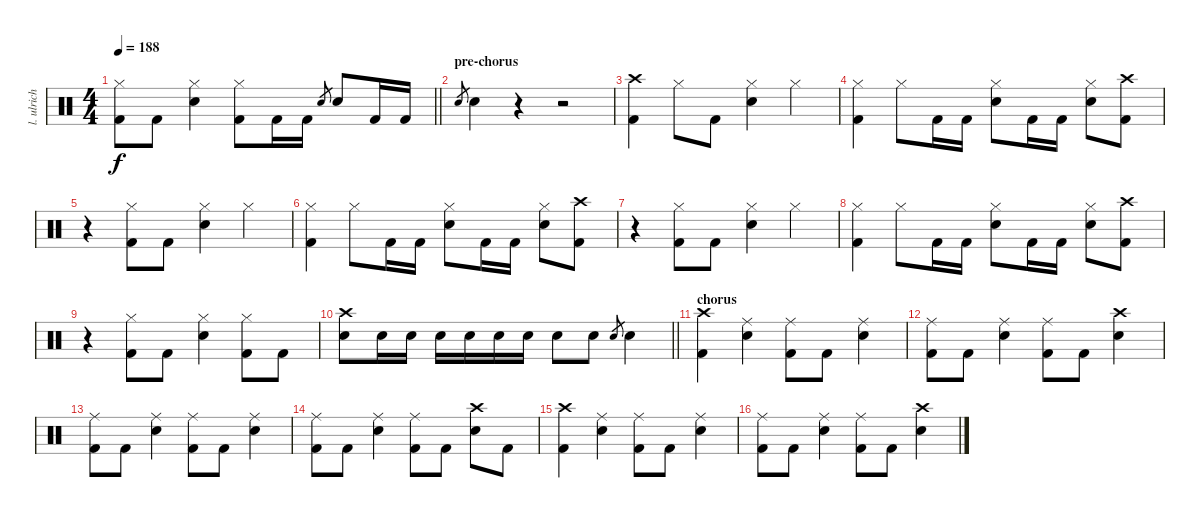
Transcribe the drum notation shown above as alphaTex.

\track ("l. ulrich - drums" "l. ulrich ") {instrument percussion}
\staff {score}
\articulation defaults
\ts (4 4)
\tempo 188
\clef neutral
\barLineRight lightlight
\ks c
("Hi-Hat (closed)" "Kick (hit) 2").8{dy f} "Kick (hit) 2".8 ("Hi-Hat (closed)" "Snare (hit) 2").4 ("Hi-Hat (closed)" "Kick (hit) 2").8 "Kick (hit) 2".16 "Kick (hit) 2".16 "Snare (hit) 2".8{gr} "Snare (hit) 2".8 "Kick (hit) 2".16 "Kick (hit) 2".16 |
\section ("" "pre-chorus")
"Snare (hit) 2".8{gr} "Snare (hit) 2".4 r.4 r.2 |
("Crash high (hit)" "Kick (hit) 2").4 "Hi-Hat (closed)".8 "Kick (hit) 2".8 ("Hi-Hat (closed)" "Snare (hit) 2").4 "Hi-Hat (closed)".4 |
("Hi-Hat (closed)" "Kick (hit) 2").4 "Hi-Hat (closed)".8 "Kick (hit) 2".16 "Kick (hit) 2".16 ("Hi-Hat (closed)" "Snare (hit) 2").8 "Kick (hit) 2".16 "Kick (hit) 2".16 ("Hi-Hat (closed)" "Snare (hit) 2").8 ("Crash high (hit)" "Kick (hit) 2").8 |
r.4 ("Hi-Hat (closed)" "Kick (hit) 2").8 "Kick (hit) 2".8 ("Hi-Hat (closed)" "Snare (hit) 2").4 "Hi-Hat (closed)".4 |
("Hi-Hat (closed)" "Kick (hit) 2").4 "Hi-Hat (closed)".8 "Kick (hit) 2".16 "Kick (hit) 2".16 ("Hi-Hat (closed)" "Snare (hit) 2").8 "Kick (hit) 2".16 "Kick (hit) 2".16 ("Hi-Hat (closed)" "Snare (hit) 2").8 ("Crash high (hit)" "Kick (hit) 2").8 |
r.4 ("Hi-Hat (closed)" "Kick (hit) 2").8 "Kick (hit) 2".8 ("Hi-Hat (closed)" "Snare (hit) 2").4 "Hi-Hat (closed)".4 |
("Hi-Hat (closed)" "Kick (hit) 2").4 "Hi-Hat (closed)".8 "Kick (hit) 2".16 "Kick (hit) 2".16 ("Hi-Hat (closed)" "Snare (hit) 2").8 "Kick (hit) 2".16 "Kick (hit) 2".16 ("Hi-Hat (closed)" "Snare (hit) 2").8 ("Crash high (hit)" "Kick (hit) 2").8 |
r.4 ("Hi-Hat (closed)" "Kick (hit) 2").8 "Kick (hit) 2".8 ("Hi-Hat (closed)" "Snare (hit) 2").4 ("Hi-Hat (closed)" "Kick (hit) 2").8 "Kick (hit) 2".8 |
\barLineRight lightlight
("Crash high (hit)" "Snare (hit) 2").8 "Snare (hit) 2".16 "Snare (hit) 2".16 "Snare (hit) 2".16 "Snare (hit) 2".16 "Snare (hit) 2".16 "Snare (hit) 2".16 "Snare (hit) 2".8 "Snare (hit) 2".8 "Snare (hit) 2".8{gr} "Snare (hit) 2".4 |
\section ("" "chorus")
("Crash high (hit)" "Kick (hit) 2").4 ("Ride (middle)" "Snare (hit) 2").4 ("Ride (middle)" "Kick (hit) 2").8 "Kick (hit) 2".8 ("Ride (middle)" "Snare (hit) 2").4 |
("Ride (middle)" "Kick (hit) 2").8 "Kick (hit) 2".8 ("Ride (middle)" "Snare (hit) 2").4 ("Ride (middle)" "Kick (hit) 2").8 "Kick (hit) 2".8 ("Crash high (hit)" "Snare (hit) 2").4 |
("Ride (middle)" "Kick (hit) 2").8 "Kick (hit) 2".8 ("Ride (middle)" "Snare (hit) 2").4 ("Ride (middle)" "Kick (hit) 2").8 "Kick (hit) 2".8 ("Ride (middle)" "Snare (hit) 2").4 |
("Ride (middle)" "Kick (hit) 2").8 "Kick (hit) 2".8 ("Ride (middle)" "Snare (hit) 2").4 ("Ride (middle)" "Kick (hit) 2").8 "Kick (hit) 2".8 ("Crash high (hit)" "Snare (hit) 2").8 "Kick (hit) 2".8 |
("Crash high (hit)" "Kick (hit) 2").4 ("Ride (middle)" "Snare (hit) 2").4 ("Ride (middle)" "Kick (hit) 2").8 "Kick (hit) 2".8 ("Ride (middle)" "Snare (hit) 2").4 |
("Ride (middle)" "Kick (hit) 2").8 "Kick (hit) 2".8 ("Ride (middle)" "Snare (hit) 2").4 ("Ride (middle)" "Kick (hit) 2").8 "Kick (hit) 2".8 ("Crash high (hit)" "Snare (hit) 2").4
